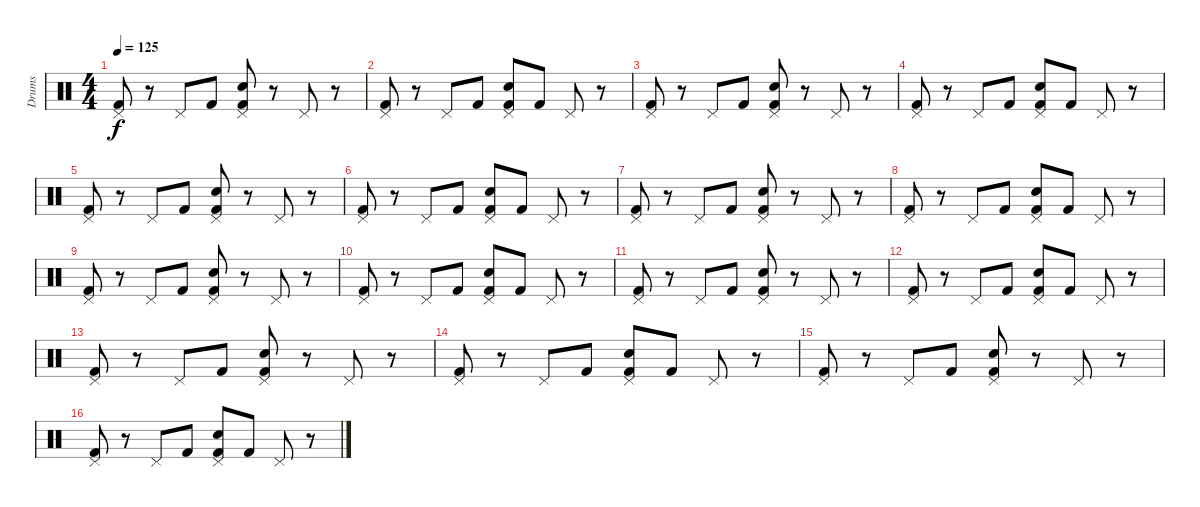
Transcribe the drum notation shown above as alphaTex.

\track ("Drums" "Drums") {instrument percussion}
\staff {score}
\articulation defaults
\ts (4 4)
\tempo 125
\clef neutral
\ks c
("Pedal Hi-Hat (hit)" "Kick (hit) 2").8{dy f} r.8 "Pedal Hi-Hat (hit)".8 "Kick (hit) 2".8 ("Pedal Hi-Hat (hit)" "Electric Snare (hit)" "Kick (hit) 2").8 r.8 "Pedal Hi-Hat (hit)".8 r.8 |
("Pedal Hi-Hat (hit)" "Kick (hit) 2").8 r.8 "Pedal Hi-Hat (hit)".8 "Kick (hit) 2".8 ("Pedal Hi-Hat (hit)" "Electric Snare (hit)" "Kick (hit) 2").8 "Kick (hit) 2".8 "Pedal Hi-Hat (hit)".8 r.8 |
("Pedal Hi-Hat (hit)" "Kick (hit) 2").8 r.8 "Pedal Hi-Hat (hit)".8 "Kick (hit) 2".8 ("Pedal Hi-Hat (hit)" "Electric Snare (hit)" "Kick (hit) 2").8 r.8 "Pedal Hi-Hat (hit)".8 r.8 |
("Pedal Hi-Hat (hit)" "Kick (hit) 2").8 r.8 "Pedal Hi-Hat (hit)".8 "Kick (hit) 2".8 ("Pedal Hi-Hat (hit)" "Electric Snare (hit)" "Kick (hit) 2").8 "Kick (hit) 2".8 "Pedal Hi-Hat (hit)".8 r.8 |
("Pedal Hi-Hat (hit)" "Kick (hit) 2").8 r.8 "Pedal Hi-Hat (hit)".8 "Kick (hit) 2".8 ("Pedal Hi-Hat (hit)" "Electric Snare (hit)" "Kick (hit) 2").8 r.8 "Pedal Hi-Hat (hit)".8 r.8 |
("Pedal Hi-Hat (hit)" "Kick (hit) 2").8 r.8 "Pedal Hi-Hat (hit)".8 "Kick (hit) 2".8 ("Pedal Hi-Hat (hit)" "Electric Snare (hit)" "Kick (hit) 2").8 "Kick (hit) 2".8 "Pedal Hi-Hat (hit)".8 r.8 |
("Pedal Hi-Hat (hit)" "Kick (hit) 2").8 r.8 "Pedal Hi-Hat (hit)".8 "Kick (hit) 2".8 ("Pedal Hi-Hat (hit)" "Electric Snare (hit)" "Kick (hit) 2").8 r.8 "Pedal Hi-Hat (hit)".8 r.8 |
("Pedal Hi-Hat (hit)" "Kick (hit) 2").8 r.8 "Pedal Hi-Hat (hit)".8 "Kick (hit) 2".8 ("Pedal Hi-Hat (hit)" "Electric Snare (hit)" "Kick (hit) 2").8 "Kick (hit) 2".8 "Pedal Hi-Hat (hit)".8 r.8 |
("Pedal Hi-Hat (hit)" "Kick (hit) 2").8 r.8 "Pedal Hi-Hat (hit)".8 "Kick (hit) 2".8 ("Pedal Hi-Hat (hit)" "Electric Snare (hit)" "Kick (hit) 2").8 r.8 "Pedal Hi-Hat (hit)".8 r.8 |
("Pedal Hi-Hat (hit)" "Kick (hit) 2").8 r.8 "Pedal Hi-Hat (hit)".8 "Kick (hit) 2".8 ("Pedal Hi-Hat (hit)" "Electric Snare (hit)" "Kick (hit) 2").8 "Kick (hit) 2".8 "Pedal Hi-Hat (hit)".8 r.8 |
("Pedal Hi-Hat (hit)" "Kick (hit) 2").8 r.8 "Pedal Hi-Hat (hit)".8 "Kick (hit) 2".8 ("Pedal Hi-Hat (hit)" "Electric Snare (hit)" "Kick (hit) 2").8 r.8 "Pedal Hi-Hat (hit)".8 r.8 |
("Pedal Hi-Hat (hit)" "Kick (hit) 2").8 r.8 "Pedal Hi-Hat (hit)".8 "Kick (hit) 2".8 ("Pedal Hi-Hat (hit)" "Electric Snare (hit)" "Kick (hit) 2").8 "Kick (hit) 2".8 "Pedal Hi-Hat (hit)".8 r.8 |
("Pedal Hi-Hat (hit)" "Kick (hit) 2").8 r.8 "Pedal Hi-Hat (hit)".8 "Kick (hit) 2".8 ("Pedal Hi-Hat (hit)" "Electric Snare (hit)" "Kick (hit) 2").8 r.8 "Pedal Hi-Hat (hit)".8 r.8 |
("Pedal Hi-Hat (hit)" "Kick (hit) 2").8 r.8 "Pedal Hi-Hat (hit)".8 "Kick (hit) 2".8 ("Pedal Hi-Hat (hit)" "Electric Snare (hit)" "Kick (hit) 2").8 "Kick (hit) 2".8 "Pedal Hi-Hat (hit)".8 r.8 |
("Pedal Hi-Hat (hit)" "Kick (hit) 2").8 r.8 "Pedal Hi-Hat (hit)".8 "Kick (hit) 2".8 ("Pedal Hi-Hat (hit)" "Electric Snare (hit)" "Kick (hit) 2").8 r.8 "Pedal Hi-Hat (hit)".8 r.8 |
("Pedal Hi-Hat (hit)" "Kick (hit) 2").8 r.8 "Pedal Hi-Hat (hit)".8 "Kick (hit) 2".8 ("Pedal Hi-Hat (hit)" "Electric Snare (hit)" "Kick (hit) 2").8 "Kick (hit) 2".8 "Pedal Hi-Hat (hit)".8 r.8
